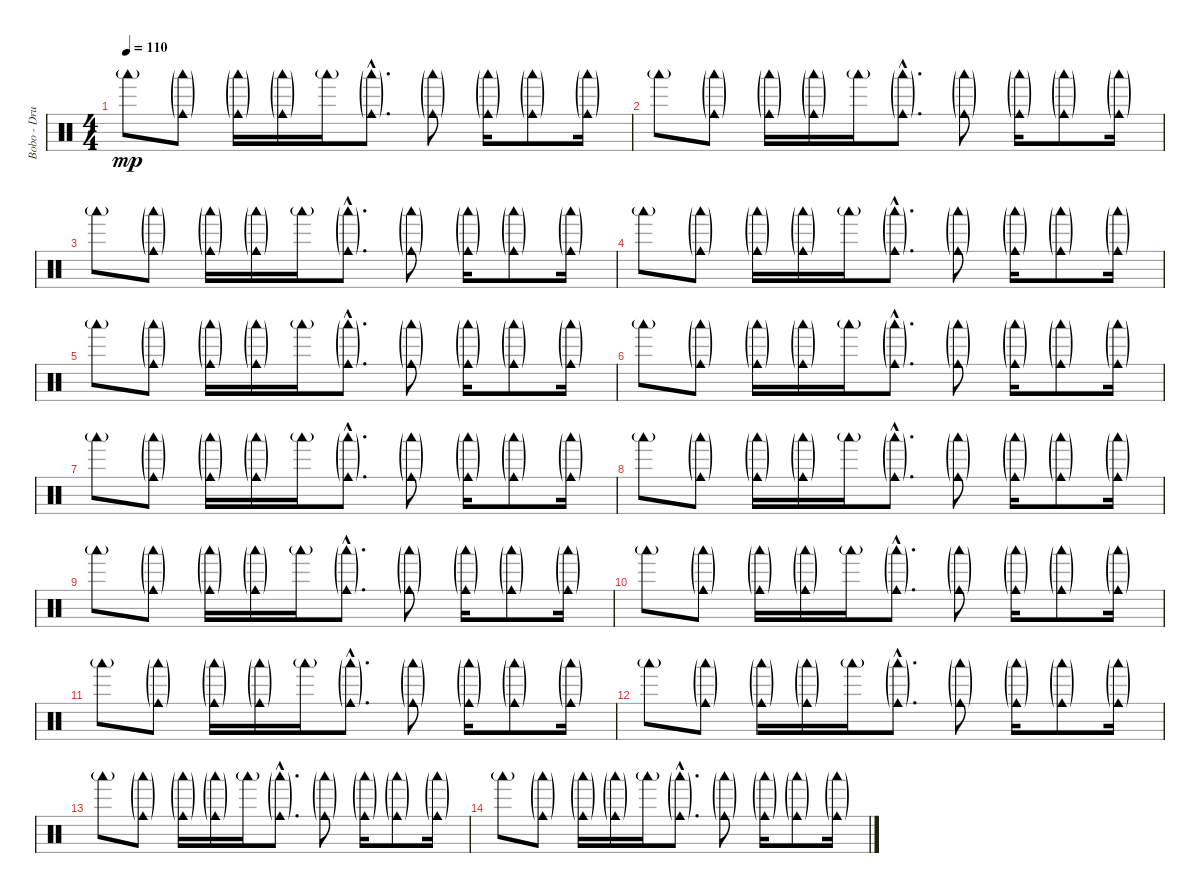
\track ("Bobo - Drums" "Bobo - Dru") {instrument percussion}
\staff {score}
\articulation defaults
\ts (4 4)
\tempo 110
\clef neutral
\ks c "Woodblock low (hit)"{g}.8{dy mp}
("Woodblock low (hit)"{g} "Cowbell medium (hit)"{g}).8 ("Woodblock low (hit)"{g} "Cowbell medium (hit)"{g}).16 ("Woodblock low (hit)"{g} "Cowbell medium (hit)"{g}).16 "Woodblock low (hit)"{g}.16 ("Woodblock low (hit)"{g hac} "Cowbell medium (hit)"{g hac}).8{d} ("Woodblock low (hit)"{g} "Cowbell medium (hit)"{g}).8 ("Woodblock low (hit)"{g} "Cowbell medium (hit)"{g}).16 ("Woodblock low (hit)"{g} "Cowbell medium (hit)"{g}).8 ("Woodblock low (hit)"{g} "Cowbell medium (hit)"{g}).16 |
"Woodblock low (hit)"{g}.8 ("Woodblock low (hit)"{g} "Cowbell medium (hit)"{g}).8 ("Woodblock low (hit)"{g} "Cowbell medium (hit)"{g}).16 ("Woodblock low (hit)"{g} "Cowbell medium (hit)"{g}).16 "Woodblock low (hit)"{g}.16 ("Woodblock low (hit)"{g hac} "Cowbell medium (hit)"{g hac}).8{d} ("Woodblock low (hit)"{g} "Cowbell medium (hit)"{g}).8 ("Woodblock low (hit)"{g} "Cowbell medium (hit)"{g}).16 ("Woodblock low (hit)"{g} "Cowbell medium (hit)"{g}).8 ("Woodblock low (hit)"{g} "Cowbell medium (hit)"{g}).16 |
"Woodblock low (hit)"{g}.8 ("Woodblock low (hit)"{g} "Cowbell medium (hit)"{g}).8 ("Woodblock low (hit)"{g} "Cowbell medium (hit)"{g}).16 ("Woodblock low (hit)"{g} "Cowbell medium (hit)"{g}).16 "Woodblock low (hit)"{g}.16 ("Woodblock low (hit)"{g hac} "Cowbell medium (hit)"{g hac}).8{d} ("Woodblock low (hit)"{g} "Cowbell medium (hit)"{g}).8 ("Woodblock low (hit)"{g} "Cowbell medium (hit)"{g}).16 ("Woodblock low (hit)"{g} "Cowbell medium (hit)"{g}).8 ("Woodblock low (hit)"{g} "Cowbell medium (hit)"{g}).16 |
"Woodblock low (hit)"{g}.8 ("Woodblock low (hit)"{g} "Cowbell medium (hit)"{g}).8 ("Woodblock low (hit)"{g} "Cowbell medium (hit)"{g}).16 ("Woodblock low (hit)"{g} "Cowbell medium (hit)"{g}).16 "Woodblock low (hit)"{g}.16 ("Woodblock low (hit)"{g hac} "Cowbell medium (hit)"{g hac}).8{d} ("Woodblock low (hit)"{g} "Cowbell medium (hit)"{g}).8 ("Woodblock low (hit)"{g} "Cowbell medium (hit)"{g}).16 ("Woodblock low (hit)"{g} "Cowbell medium (hit)"{g}).8 ("Woodblock low (hit)"{g} "Cowbell medium (hit)"{g}).16 |
"Woodblock low (hit)"{g}.8 ("Woodblock low (hit)"{g} "Cowbell medium (hit)"{g}).8 ("Woodblock low (hit)"{g} "Cowbell medium (hit)"{g}).16 ("Woodblock low (hit)"{g} "Cowbell medium (hit)"{g}).16 "Woodblock low (hit)"{g}.16 ("Woodblock low (hit)"{g hac} "Cowbell medium (hit)"{g hac}).8{d} ("Woodblock low (hit)"{g} "Cowbell medium (hit)"{g}).8 ("Woodblock low (hit)"{g} "Cowbell medium (hit)"{g}).16 ("Woodblock low (hit)"{g} "Cowbell medium (hit)"{g}).8 ("Woodblock low (hit)"{g} "Cowbell medium (hit)"{g}).16 |
"Woodblock low (hit)"{g}.8 ("Woodblock low (hit)"{g} "Cowbell medium (hit)"{g}).8 ("Woodblock low (hit)"{g} "Cowbell medium (hit)"{g}).16 ("Woodblock low (hit)"{g} "Cowbell medium (hit)"{g}).16 "Woodblock low (hit)"{g}.16 ("Woodblock low (hit)"{g hac} "Cowbell medium (hit)"{g hac}).8{d} ("Woodblock low (hit)"{g} "Cowbell medium (hit)"{g}).8 ("Woodblock low (hit)"{g} "Cowbell medium (hit)"{g}).16 ("Woodblock low (hit)"{g} "Cowbell medium (hit)"{g}).8 ("Woodblock low (hit)"{g} "Cowbell medium (hit)"{g}).16 |
"Woodblock low (hit)"{g}.8 ("Woodblock low (hit)"{g} "Cowbell medium (hit)"{g}).8 ("Woodblock low (hit)"{g} "Cowbell medium (hit)"{g}).16 ("Woodblock low (hit)"{g} "Cowbell medium (hit)"{g}).16 "Woodblock low (hit)"{g}.16 ("Woodblock low (hit)"{g hac} "Cowbell medium (hit)"{g hac}).8{d} ("Woodblock low (hit)"{g} "Cowbell medium (hit)"{g}).8 ("Woodblock low (hit)"{g} "Cowbell medium (hit)"{g}).16 ("Woodblock low (hit)"{g} "Cowbell medium (hit)"{g}).8 ("Woodblock low (hit)"{g} "Cowbell medium (hit)"{g}).16 |
"Woodblock low (hit)"{g}.8 ("Woodblock low (hit)"{g} "Cowbell medium (hit)"{g}).8 ("Woodblock low (hit)"{g} "Cowbell medium (hit)"{g}).16 ("Woodblock low (hit)"{g} "Cowbell medium (hit)"{g}).16 "Woodblock low (hit)"{g}.16 ("Woodblock low (hit)"{g hac} "Cowbell medium (hit)"{g hac}).8{d} ("Woodblock low (hit)"{g} "Cowbell medium (hit)"{g}).8 ("Woodblock low (hit)"{g} "Cowbell medium (hit)"{g}).16 ("Woodblock low (hit)"{g} "Cowbell medium (hit)"{g}).8 ("Woodblock low (hit)"{g} "Cowbell medium (hit)"{g}).16 |
"Woodblock low (hit)"{g}.8 ("Woodblock low (hit)"{g} "Cowbell medium (hit)"{g}).8 ("Woodblock low (hit)"{g} "Cowbell medium (hit)"{g}).16 ("Woodblock low (hit)"{g} "Cowbell medium (hit)"{g}).16 "Woodblock low (hit)"{g}.16 ("Woodblock low (hit)"{g hac} "Cowbell medium (hit)"{g hac}).8{d} ("Woodblock low (hit)"{g} "Cowbell medium (hit)"{g}).8 ("Woodblock low (hit)"{g} "Cowbell medium (hit)"{g}).16 ("Woodblock low (hit)"{g} "Cowbell medium (hit)"{g}).8 ("Woodblock low (hit)"{g} "Cowbell medium (hit)"{g}).16 |
"Woodblock low (hit)"{g}.8 ("Woodblock low (hit)"{g} "Cowbell medium (hit)"{g}).8 ("Woodblock low (hit)"{g} "Cowbell medium (hit)"{g}).16 ("Woodblock low (hit)"{g} "Cowbell medium (hit)"{g}).16 "Woodblock low (hit)"{g}.16 ("Woodblock low (hit)"{g hac} "Cowbell medium (hit)"{g hac}).8{d} ("Woodblock low (hit)"{g} "Cowbell medium (hit)"{g}).8 ("Woodblock low (hit)"{g} "Cowbell medium (hit)"{g}).16 ("Woodblock low (hit)"{g} "Cowbell medium (hit)"{g}).8 ("Woodblock low (hit)"{g} "Cowbell medium (hit)"{g}).16 |
"Woodblock low (hit)"{g}.8 ("Woodblock low (hit)"{g} "Cowbell medium (hit)"{g}).8 ("Woodblock low (hit)"{g} "Cowbell medium (hit)"{g}).16 ("Woodblock low (hit)"{g} "Cowbell medium (hit)"{g}).16 "Woodblock low (hit)"{g}.16 ("Woodblock low (hit)"{g hac} "Cowbell medium (hit)"{g hac}).8{d} ("Woodblock low (hit)"{g} "Cowbell medium (hit)"{g}).8 ("Woodblock low (hit)"{g} "Cowbell medium (hit)"{g}).16 ("Woodblock low (hit)"{g} "Cowbell medium (hit)"{g}).8 ("Woodblock low (hit)"{g} "Cowbell medium (hit)"{g}).16 |
"Woodblock low (hit)"{g}.8 ("Woodblock low (hit)"{g} "Cowbell medium (hit)"{g}).8 ("Woodblock low (hit)"{g} "Cowbell medium (hit)"{g}).16 ("Woodblock low (hit)"{g} "Cowbell medium (hit)"{g}).16 "Woodblock low (hit)"{g}.16 ("Woodblock low (hit)"{g hac} "Cowbell medium (hit)"{g hac}).8{d} ("Woodblock low (hit)"{g} "Cowbell medium (hit)"{g}).8 ("Woodblock low (hit)"{g} "Cowbell medium (hit)"{g}).16 ("Woodblock low (hit)"{g} "Cowbell medium (hit)"{g}).8 ("Woodblock low (hit)"{g} "Cowbell medium (hit)"{g}).16 |
"Woodblock low (hit)"{g}.8 ("Woodblock low (hit)"{g} "Cowbell medium (hit)"{g}).8 ("Woodblock low (hit)"{g} "Cowbell medium (hit)"{g}).16 ("Woodblock low (hit)"{g} "Cowbell medium (hit)"{g}).16 "Woodblock low (hit)"{g}.16 ("Woodblock low (hit)"{g hac} "Cowbell medium (hit)"{g hac}).8{d} ("Woodblock low (hit)"{g} "Cowbell medium (hit)"{g}).8 ("Woodblock low (hit)"{g} "Cowbell medium (hit)"{g}).16 ("Woodblock low (hit)"{g} "Cowbell medium (hit)"{g}).8 ("Woodblock low (hit)"{g} "Cowbell medium (hit)"{g}).16 |
"Woodblock low (hit)"{g}.8 ("Woodblock low (hit)"{g} "Cowbell medium (hit)"{g}).8 ("Woodblock low (hit)"{g} "Cowbell medium (hit)"{g}).16 ("Woodblock low (hit)"{g} "Cowbell medium (hit)"{g}).16 "Woodblock low (hit)"{g}.16 ("Woodblock low (hit)"{g hac} "Cowbell medium (hit)"{g hac}).8{d} ("Woodblock low (hit)"{g} "Cowbell medium (hit)"{g}).8 ("Woodblock low (hit)"{g} "Cowbell medium (hit)"{g}).16 ("Woodblock low (hit)"{g} "Cowbell medium (hit)"{g}).8 ("Woodblock low (hit)"{g} "Cowbell medium (hit)"{g}).16
